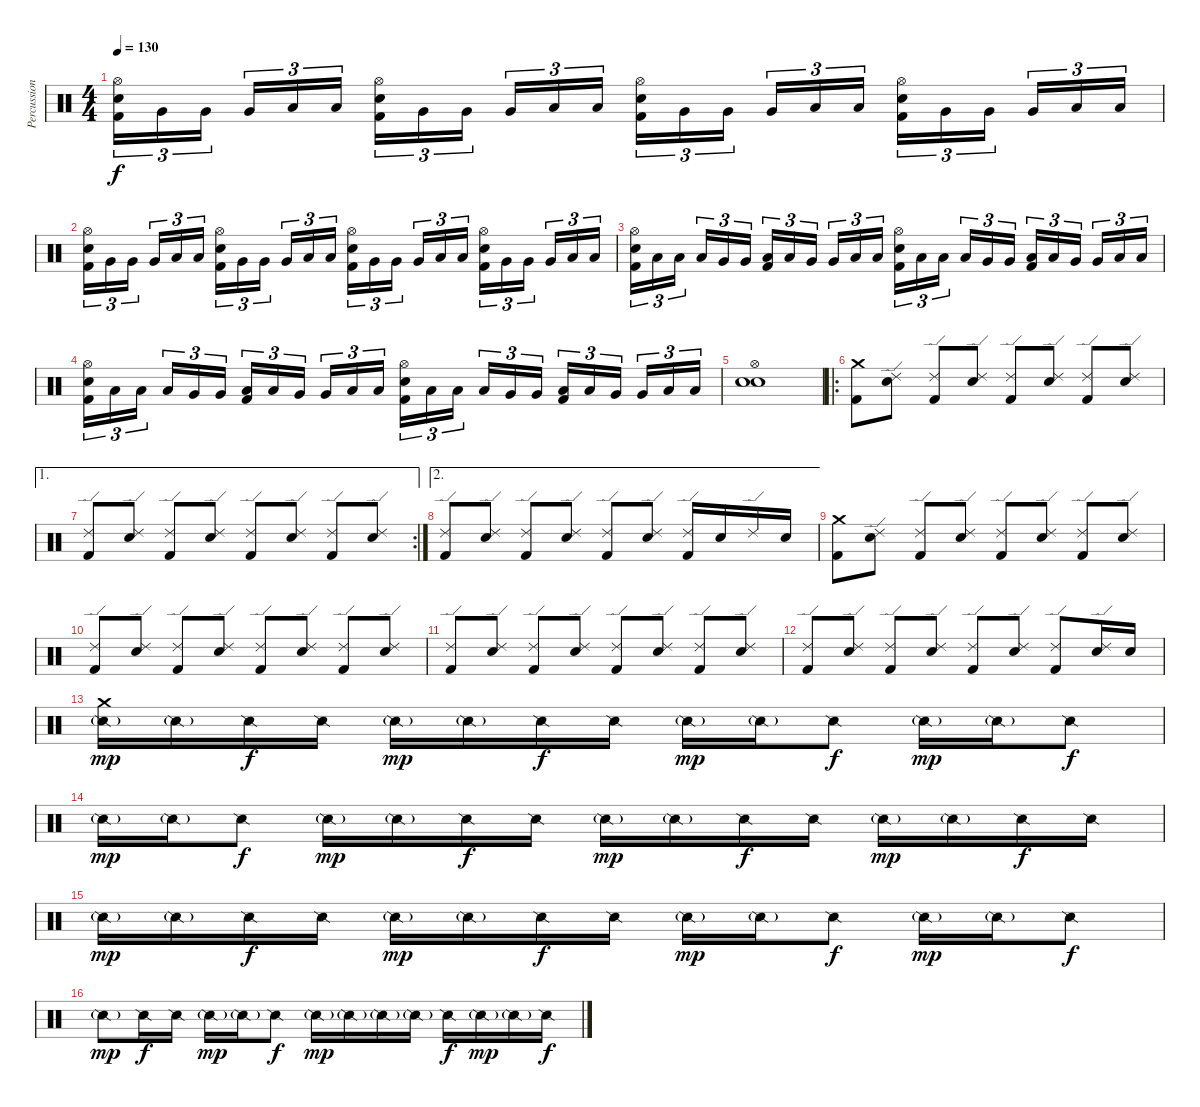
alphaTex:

\track ("Percussion" "Percussion") {instrument percussion}
\staff {score}
\articulation defaults
\ts (4 4)
\tempo 130
\clef neutral
\ks c
("Hi-Hat (open)" "Electric Snare (hit)" "Kick (hit) 2").16{tu (3 2) dy f} "Very Low Tom (hit)".16{tu (3 2)} "Very Low Tom (hit)".16{tu (3 2)} "Very Low Tom (hit)".16{tu (3 2)} "Low Floor Tom (hit)".16{tu (3 2)} "Low Floor Tom (hit)".16{tu (3 2)} ("Hi-Hat (open)" "Electric Snare (hit)" "Kick (hit) 2").16{tu (3 2)} "Very Low Tom (hit)".16{tu (3 2)} "Very Low Tom (hit)".16{tu (3 2)} "Very Low Tom (hit)".16{tu (3 2)} "Low Floor Tom (hit)".16{tu (3 2)} "Low Floor Tom (hit)".16{tu (3 2)} ("Hi-Hat (open)" "Electric Snare (hit)" "Kick (hit) 2").16{tu (3 2)} "Very Low Tom (hit)".16{tu (3 2)} "Very Low Tom (hit)".16{tu (3 2)} "Very Low Tom (hit)".16{tu (3 2)} "Low Floor Tom (hit)".16{tu (3 2)} "Low Floor Tom (hit)".16{tu (3 2)} ("Hi-Hat (open)" "Electric Snare (hit)" "Kick (hit) 2").16{tu (3 2)} "Very Low Tom (hit)".16{tu (3 2)} "Very Low Tom (hit)".16{tu (3 2)} "Very Low Tom (hit)".16{tu (3 2)} "Low Floor Tom (hit)".16{tu (3 2)} "Low Floor Tom (hit)".16{tu (3 2)} |
("Hi-Hat (open)" "Electric Snare (hit)" "Kick (hit) 2").16{tu (3 2)} "Very Low Tom (hit)".16{tu (3 2)} "Very Low Tom (hit)".16{tu (3 2)} "Very Low Tom (hit)".16{tu (3 2)} "Low Floor Tom (hit)".16{tu (3 2)} "Low Floor Tom (hit)".16{tu (3 2)} ("Hi-Hat (open)" "Electric Snare (hit)" "Kick (hit) 2").16{tu (3 2)} "Very Low Tom (hit)".16{tu (3 2)} "Very Low Tom (hit)".16{tu (3 2)} "Very Low Tom (hit)".16{tu (3 2)} "Low Floor Tom (hit)".16{tu (3 2)} "Low Floor Tom (hit)".16{tu (3 2)} ("Hi-Hat (open)" "Electric Snare (hit)" "Kick (hit) 2").16{tu (3 2)} "Very Low Tom (hit)".16{tu (3 2)} "Very Low Tom (hit)".16{tu (3 2)} "Very Low Tom (hit)".16{tu (3 2)} "Low Floor Tom (hit)".16{tu (3 2)} "Low Floor Tom (hit)".16{tu (3 2)} ("Hi-Hat (open)" "Electric Snare (hit)" "Kick (hit) 2").16{tu (3 2)} "Very Low Tom (hit)".16{tu (3 2)} "Very Low Tom (hit)".16{tu (3 2)} "Very Low Tom (hit)".16{tu (3 2)} "Low Floor Tom (hit)".16{tu (3 2)} "Low Floor Tom (hit)".16{tu (3 2)} |
("Hi-Hat (open)" "Electric Snare (hit)" "Kick (hit) 2").16{tu (3 2)} "Low Floor Tom (hit)".16{tu (3 2)} "Low Floor Tom (hit)".16{tu (3 2)} "Low Floor Tom (hit)".16{tu (3 2)} "Very Low Tom (hit)".16{tu (3 2)} "Very Low Tom (hit)".16{tu (3 2)} ("Low Tom (hit)" "Kick (hit) 2").16{tu (3 2)} "Low Tom (hit)".16{tu (3 2)} "Very Low Tom (hit)".16{tu (3 2)} "Very Low Tom (hit)".16{tu (3 2)} "Low Floor Tom (hit)".16{tu (3 2)} "Low Floor Tom (hit)".16{tu (3 2)} ("Hi-Hat (open)" "Electric Snare (hit)" "Kick (hit) 2").16{tu (3 2)} "Low Floor Tom (hit)".16{tu (3 2)} "Low Floor Tom (hit)".16{tu (3 2)} "Low Floor Tom (hit)".16{tu (3 2)} "Very Low Tom (hit)".16{tu (3 2)} "Very Low Tom (hit)".16{tu (3 2)} ("Low Tom (hit)" "Kick (hit) 2").16{tu (3 2)} "Low Tom (hit)".16{tu (3 2)} "Very Low Tom (hit)".16{tu (3 2)} "Very Low Tom (hit)".16{tu (3 2)} "Low Floor Tom (hit)".16{tu (3 2)} "Low Floor Tom (hit)".16{tu (3 2)} |
("Hi-Hat (open)" "Electric Snare (hit)" "Kick (hit) 2").16{tu (3 2)} "Low Floor Tom (hit)".16{tu (3 2)} "Low Floor Tom (hit)".16{tu (3 2)} "Low Floor Tom (hit)".16{tu (3 2)} "Very Low Tom (hit)".16{tu (3 2)} "Very Low Tom (hit)".16{tu (3 2)} ("Low Tom (hit)" "Kick (hit) 2").16{tu (3 2)} "Low Tom (hit)".16{tu (3 2)} "Very Low Tom (hit)".16{tu (3 2)} "Very Low Tom (hit)".16{tu (3 2)} "Low Floor Tom (hit)".16{tu (3 2)} "Low Floor Tom (hit)".16{tu (3 2)} ("Hi-Hat (open)" "Electric Snare (hit)" "Kick (hit) 2").16{tu (3 2)} "Low Floor Tom (hit)".16{tu (3 2)} "Low Floor Tom (hit)".16{tu (3 2)} "Low Floor Tom (hit)".16{tu (3 2)} "Very Low Tom (hit)".16{tu (3 2)} "Very Low Tom (hit)".16{tu (3 2)} ("Low Tom (hit)" "Kick (hit) 2").16{tu (3 2)} "Low Tom (hit)".16{tu (3 2)} "Very Low Tom (hit)".16{tu (3 2)} "Very Low Tom (hit)".16{tu (3 2)} "Low Floor Tom (hit)".16{tu (3 2)} "Low Floor Tom (hit)".16{tu (3 2)} |
("Hi-Hat (open)" "Electric Snare (hit)" "Electric Snare (hit)").1 |
\ro
("Crash medium (hit)" "Kick (hit) 2").8 ("Ride (edge) 2" "Electric Snare (hit)").8 ("Ride (edge) 2" "Kick (hit) 2").8 ("Ride (edge) 2" "Electric Snare (hit)").8 ("Ride (edge) 2" "Kick (hit) 2").8 ("Ride (edge) 2" "Electric Snare (hit)").8 ("Ride (edge) 2" "Kick (hit) 2").8 ("Ride (edge) 2" "Electric Snare (hit)").8 |
\ae 1
\rc 2
("Ride (edge) 2" "Kick (hit) 2").8 ("Ride (edge) 2" "Electric Snare (hit)").8 ("Ride (edge) 2" "Kick (hit) 2").8 ("Ride (edge) 2" "Electric Snare (hit)").8 ("Ride (edge) 2" "Kick (hit) 2").8 ("Ride (edge) 2" "Electric Snare (hit)").8 ("Ride (edge) 2" "Kick (hit) 2").8 ("Ride (edge) 2" "Electric Snare (hit)").8 |
\ae 2
("Ride (edge) 2" "Kick (hit) 2").8 ("Ride (edge) 2" "Electric Snare (hit)").8 ("Ride (edge) 2" "Kick (hit) 2").8 ("Ride (edge) 2" "Electric Snare (hit)").8 ("Ride (edge) 2" "Kick (hit) 2").8 ("Ride (edge) 2" "Electric Snare (hit)").8 ("Ride (edge) 2" "Kick (hit) 2").16 "Electric Snare (hit)".16 "Ride (edge) 2".16 "Electric Snare (hit)".16 |
("Crash medium (hit)" "Kick (hit) 2").8 ("Ride (edge) 2" "Electric Snare (hit)").8 ("Ride (edge) 2" "Kick (hit) 2").8 ("Ride (edge) 2" "Electric Snare (hit)").8 ("Ride (edge) 2" "Kick (hit) 2").8 ("Ride (edge) 2" "Electric Snare (hit)").8 ("Ride (edge) 2" "Kick (hit) 2").8 ("Ride (edge) 2" "Electric Snare (hit)").8 |
("Ride (edge) 2" "Kick (hit) 2").8 ("Ride (edge) 2" "Electric Snare (hit)").8 ("Ride (edge) 2" "Kick (hit) 2").8 ("Ride (edge) 2" "Electric Snare (hit)").8 ("Ride (edge) 2" "Kick (hit) 2").8 ("Ride (edge) 2" "Electric Snare (hit)").8 ("Ride (edge) 2" "Kick (hit) 2").8 ("Ride (edge) 2" "Electric Snare (hit)").8 |
("Ride (edge) 2" "Kick (hit) 2").8 ("Ride (edge) 2" "Electric Snare (hit)").8 ("Ride (edge) 2" "Kick (hit) 2").8 ("Ride (edge) 2" "Electric Snare (hit)").8 ("Ride (edge) 2" "Kick (hit) 2").8 ("Ride (edge) 2" "Electric Snare (hit)").8 ("Ride (edge) 2" "Kick (hit) 2").8 ("Ride (edge) 2" "Electric Snare (hit)").8 |
("Ride (edge) 2" "Kick (hit) 2").8 ("Ride (edge) 2" "Electric Snare (hit)").8 ("Ride (edge) 2" "Kick (hit) 2").8 ("Ride (edge) 2" "Electric Snare (hit)").8 ("Ride (edge) 2" "Kick (hit) 2").8 ("Ride (edge) 2" "Electric Snare (hit)").8 ("Ride (edge) 2" "Kick (hit) 2").8 ("Ride (edge) 2" "Electric Snare (hit)").16 "Electric Snare (hit)".16 |
("Crash medium (hit)" "Snare (side stick) 2"{g}).16{dy mp} "Snare (side stick) 2"{g}.16 "Snare (side stick) 2".16{dy f} "Snare (side stick) 2".16 "Snare (side stick) 2"{g}.16{dy mp} "Snare (side stick) 2"{g}.16 "Snare (side stick) 2".16{dy f} "Snare (side stick) 2".16 "Snare (side stick) 2"{g}.16{dy mp} "Snare (side stick) 2"{g}.16 "Snare (side stick) 2".8{dy f} "Snare (side stick) 2"{g}.16{dy mp} "Snare (side stick) 2"{g}.16 "Snare (side stick) 2".8{dy f} |
"Snare (side stick) 2"{g}.16{dy mp} "Snare (side stick) 2"{g}.16 "Snare (side stick) 2".8{dy f} "Snare (side stick) 2"{g}.16{dy mp} "Snare (side stick) 2"{g}.16 "Snare (side stick) 2".16{dy f} "Snare (side stick) 2".16 "Snare (side stick) 2"{g}.16{dy mp} "Snare (side stick) 2"{g}.16 "Snare (side stick) 2".16{dy f} "Snare (side stick) 2".16 "Snare (side stick) 2"{g}.16{dy mp} "Snare (side stick) 2"{g}.16 "Snare (side stick) 2".16{dy f} "Snare (side stick) 2".16 |
"Snare (side stick) 2"{g}.16{dy mp} "Snare (side stick) 2"{g}.16 "Snare (side stick) 2".16{dy f} "Snare (side stick) 2".16 "Snare (side stick) 2"{g}.16{dy mp} "Snare (side stick) 2"{g}.16 "Snare (side stick) 2".16{dy f} "Snare (side stick) 2".16 "Snare (side stick) 2"{g}.16{dy mp} "Snare (side stick) 2"{g}.16 "Snare (side stick) 2".8{dy f} "Snare (side stick) 2"{g}.16{dy mp} "Snare (side stick) 2"{g}.16 "Snare (side stick) 2".8{dy f} |
"Snare (side stick) 2"{g}.8{dy mp} "Snare (side stick) 2".16{dy f} "Snare (side stick) 2".16 "Snare (side stick) 2"{g}.16{dy mp} "Snare (side stick) 2"{g}.16 "Snare (side stick) 2".8{dy f} "Snare (side stick) 2"{g}.16{dy mp} "Snare (side stick) 2"{g}.16 "Snare (side stick) 2"{g}.16 "Snare (side stick) 2"{g}.16 "Snare (side stick) 2".16{dy f} "Snare (side stick) 2"{g}.16{dy mp} "Snare (side stick) 2"{g}.16 "Snare (side stick) 2".16{dy f}
